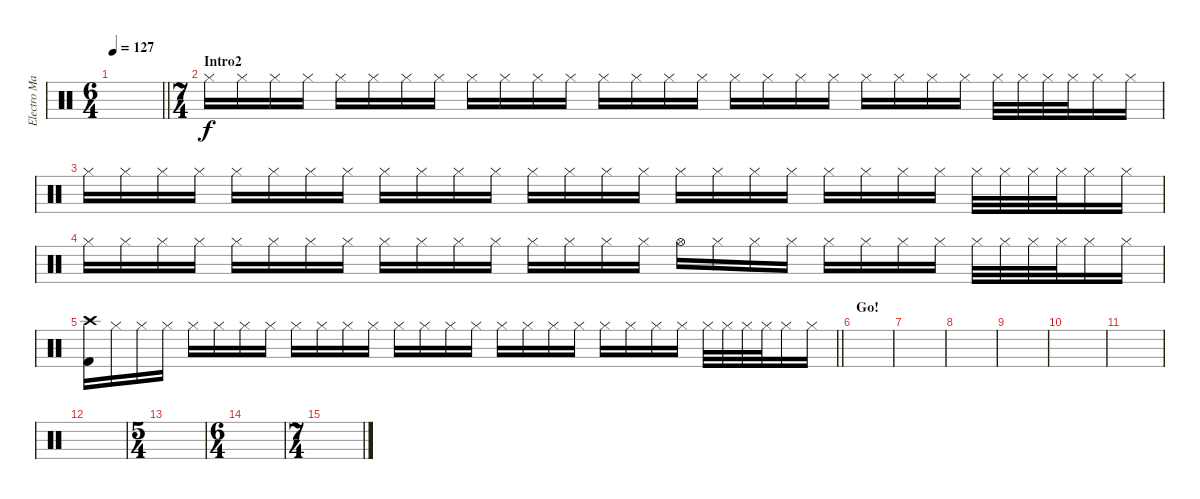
\track ("Electro Mastelotto" "Electro Ma") {instrument percussion}
\staff {score}
\articulation defaults
\ts (6 4)
\tempo 127
\clef neutral
\barLineRight lightlight
\ks c
|
\ts (7 4)
\section ("" "Intro2")
"Hi-Hat (closed)".16 "Hi-Hat (closed)".16 "Hi-Hat (closed)".16 "Hi-Hat (closed)".16 "Hi-Hat (closed)".16 "Hi-Hat (closed)".16 "Hi-Hat (closed)".16 "Hi-Hat (closed)".16 "Hi-Hat (closed)".16 "Hi-Hat (closed)".16 "Hi-Hat (closed)".16 "Hi-Hat (closed)".16 "Hi-Hat (closed)".16 "Hi-Hat (closed)".16 "Hi-Hat (closed)".16 "Hi-Hat (closed)".16 "Hi-Hat (closed)".16 "Hi-Hat (closed)".16 "Hi-Hat (closed)".16 "Hi-Hat (closed)".16 "Hi-Hat (closed)".16 "Hi-Hat (closed)".16 "Hi-Hat (closed)".16 "Hi-Hat (closed)".16 "Hi-Hat (closed)".32 "Hi-Hat (closed)".32 "Hi-Hat (closed)".32 "Hi-Hat (closed)".32 "Hi-Hat (closed)".16 "Hi-Hat (closed)".16 |
"Hi-Hat (closed)".16 "Hi-Hat (closed)".16 "Hi-Hat (closed)".16 "Hi-Hat (closed)".16 "Hi-Hat (closed)".16 "Hi-Hat (closed)".16 "Hi-Hat (closed)".16 "Hi-Hat (closed)".16 "Hi-Hat (closed)".16 "Hi-Hat (closed)".16 "Hi-Hat (closed)".16 "Hi-Hat (closed)".16 "Hi-Hat (closed)".16 "Hi-Hat (closed)".16 "Hi-Hat (closed)".16 "Hi-Hat (closed)".16 "Hi-Hat (closed)".16 "Hi-Hat (closed)".16 "Hi-Hat (closed)".16 "Hi-Hat (closed)".16 "Hi-Hat (closed)".16 "Hi-Hat (closed)".16 "Hi-Hat (closed)".16 "Hi-Hat (closed)".16 "Hi-Hat (closed)".32 "Hi-Hat (closed)".32 "Hi-Hat (closed)".32 "Hi-Hat (closed)".32 "Hi-Hat (closed)".16 "Hi-Hat (closed)".16 |
"Hi-Hat (closed)".16 "Hi-Hat (closed)".16 "Hi-Hat (closed)".16 "Hi-Hat (closed)".16 "Hi-Hat (closed)".16 "Hi-Hat (closed)".16 "Hi-Hat (closed)".16 "Hi-Hat (closed)".16 "Hi-Hat (closed)".16 "Hi-Hat (closed)".16 "Hi-Hat (closed)".16 "Hi-Hat (closed)".16 "Hi-Hat (closed)".16 "Hi-Hat (closed)".16 "Hi-Hat (closed)".16 "Hi-Hat (closed)".16 "Hi-Hat (open)".16 "Hi-Hat (closed)".16 "Hi-Hat (closed)".16 "Hi-Hat (closed)".16 "Hi-Hat (closed)".16 "Hi-Hat (closed)".16 "Hi-Hat (closed)".16 "Hi-Hat (closed)".16 "Hi-Hat (closed)".32 "Hi-Hat (closed)".32 "Hi-Hat (closed)".32 "Hi-Hat (closed)".32 "Hi-Hat (closed)".16 "Hi-Hat (closed)".16 |
\barLineRight lightlight
("Crash high (hit)" "Kick (hit) 2").16 "Hi-Hat (closed)".16 "Hi-Hat (closed)".16 "Hi-Hat (closed)".16 "Hi-Hat (closed)".16 "Hi-Hat (closed)".16 "Hi-Hat (closed)".16 "Hi-Hat (closed)".16 "Hi-Hat (closed)".16 "Hi-Hat (closed)".16 "Hi-Hat (closed)".16 "Hi-Hat (closed)".16 "Hi-Hat (closed)".16 "Hi-Hat (closed)".16 "Hi-Hat (closed)".16 "Hi-Hat (closed)".16 "Hi-Hat (closed)".16 "Hi-Hat (closed)".16 "Hi-Hat (closed)".16 "Hi-Hat (closed)".16 "Hi-Hat (closed)".16 "Hi-Hat (closed)".16 "Hi-Hat (closed)".16 "Hi-Hat (closed)".16 "Hi-Hat (closed)".32 "Hi-Hat (closed)".32 "Hi-Hat (closed)".32 "Hi-Hat (closed)".32 "Hi-Hat (closed)".16 "Hi-Hat (closed)".16 |
\section ("" "Go!")
|
|
|
|
|
|
|
\ts (5 4)
|
\ts (6 4)
|
\ts (7 4)
